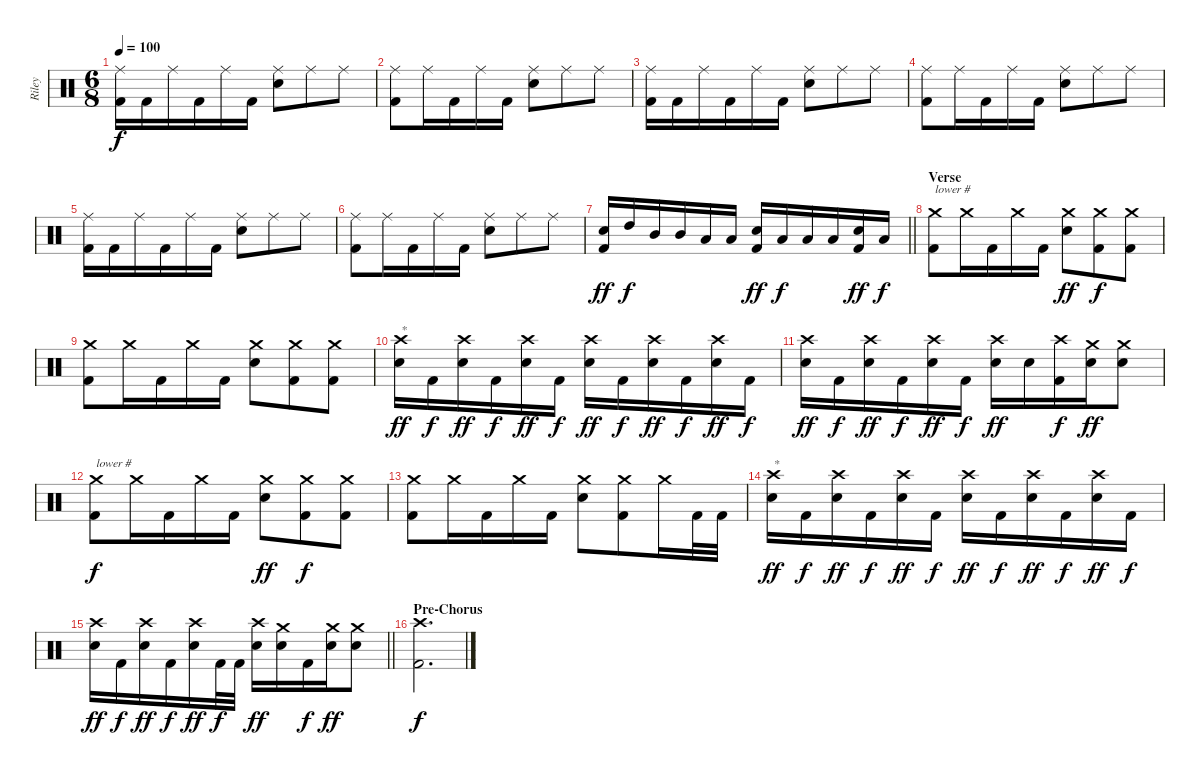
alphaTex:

\track ("Riley" "Riley") {instrument percussion}
\staff {score}
\articulation defaults
\ts (6 8)
\tempo 100
\clef neutral
\ks c
("Ride (middle)" "Kick (hit) 2").16{dy f} "Kick (hit) 2".16 "Ride (middle)".16 "Kick (hit) 2".16 "Ride (middle)".16 "Kick (hit) 2".16 ("Ride (middle)" "Electric Snare (hit)").8 "Ride (middle)".8 "Ride (middle)".8 |
("Ride (middle)" "Kick (hit) 2").8 "Ride (middle)".16 "Kick (hit) 2".16 "Ride (middle)".16 "Kick (hit) 2".16 ("Ride (middle)" "Electric Snare (hit)").8 "Ride (middle)".8 "Ride (middle)".8 |
("Ride (middle)" "Kick (hit) 2").16 "Kick (hit) 2".16 "Ride (middle)".16 "Kick (hit) 2".16 "Ride (middle)".16 "Kick (hit) 2".16 ("Ride (middle)" "Electric Snare (hit)").8 "Ride (middle)".8 "Ride (middle)".8 |
("Ride (middle)" "Kick (hit) 2").8 "Ride (middle)".16 "Kick (hit) 2".16 "Ride (middle)".16 "Kick (hit) 2".16 ("Ride (middle)" "Electric Snare (hit)").8 "Ride (middle)".8 "Ride (middle)".8 |
("Ride (middle)" "Kick (hit) 2").16 "Kick (hit) 2".16 "Ride (middle)".16 "Kick (hit) 2".16 "Ride (middle)".16 "Kick (hit) 2".16 ("Ride (middle)" "Electric Snare (hit)").8 "Ride (middle)".8 "Ride (middle)".8 |
("Ride (middle)" "Kick (hit) 2").8 "Ride (middle)".16 "Kick (hit) 2".16 "Ride (middle)".16 "Kick (hit) 2".16 ("Ride (middle)" "Electric Snare (hit)").8 "Ride (middle)".8 "Ride (middle)".8 |
\barLineRight lightlight
("Electric Snare (hit)" "Kick (hit) 2").16{dy ff} "High Tom (hit)".16{dy f} "Mid Tom (hit)".16 "Mid Tom (hit)".16 "Low Tom (hit)".16 "Low Tom (hit)".16 ("Electric Snare (hit)" "Kick (hit) 2").16{dy ff} "Low Tom (hit)".16{dy f} "Low Tom (hit)".16 "Low Tom (hit)".16 ("Electric Snare (hit)" "Kick (hit) 2").16{dy ff} "Low Tom (hit)".16{dy f} |
\section ("" "Verse")
("Crash medium (hit)" "Kick (hit) 2").8{txt "lower #"} "Crash medium (hit)".16 "Kick (hit) 2".16 "Crash medium (hit)".16 "Kick (hit) 2".16 ("Crash medium (hit)" "Electric Snare (hit)").8{dy ff} ("Crash medium (hit)" "Kick (hit) 2").8{dy f} ("Crash medium (hit)" "Kick (hit) 2").8 |
("Crash medium (hit)" "Kick (hit) 2").8 "Crash medium (hit)".16 "Kick (hit) 2".16 "Crash medium (hit)".16 "Kick (hit) 2".16 ("Crash medium (hit)" "Electric Snare (hit)").8 ("Crash medium (hit)" "Kick (hit) 2").8 ("Crash medium (hit)" "Kick (hit) 2").8 |
("Crash high (hit)" "Electric Snare (hit)").16{txt "*" dy ff} "Kick (hit) 2".16{dy f} ("Crash high (hit)" "Electric Snare (hit)").16{dy ff} "Kick (hit) 2".16{dy f} ("Crash high (hit)" "Electric Snare (hit)").16{dy ff} "Kick (hit) 2".16{dy f} ("Crash high (hit)" "Electric Snare (hit)").16{dy ff} "Kick (hit) 2".16{dy f} ("Crash high (hit)" "Electric Snare (hit)").16{dy ff} "Kick (hit) 2".16{dy f} ("Crash high (hit)" "Electric Snare (hit)").16{dy ff} "Kick (hit) 2".16{dy f} |
("Crash high (hit)" "Electric Snare (hit)").16{dy ff} "Kick (hit) 2".16{dy f} ("Crash high (hit)" "Electric Snare (hit)").16{dy ff} "Kick (hit) 2".16{dy f} ("Crash high (hit)" "Electric Snare (hit)").16{dy ff} "Kick (hit) 2".16{dy f} ("Crash high (hit)" "Electric Snare (hit)").16{dy ff} "Electric Snare (hit)".16 ("Crash high (hit)" "Kick (hit) 2").16{dy f} ("Crash medium (hit)" "Electric Snare (hit)").16{dy ff} ("Crash medium (hit)" "Electric Snare (hit)").8 |
("Crash medium (hit)" "Kick (hit) 2").8{txt "lower #" dy f} "Crash medium (hit)".16 "Kick (hit) 2".16 "Crash medium (hit)".16 "Kick (hit) 2".16 ("Crash medium (hit)" "Electric Snare (hit)").8{dy ff} ("Crash medium (hit)" "Kick (hit) 2").8{dy f} ("Crash medium (hit)" "Kick (hit) 2").8 |
("Crash medium (hit)" "Kick (hit) 2").8 "Crash medium (hit)".16 "Kick (hit) 2".16 "Crash medium (hit)".16 "Kick (hit) 2".16 ("Crash medium (hit)" "Electric Snare (hit)").8 ("Crash medium (hit)" "Kick (hit) 2").8 "Crash medium (hit)".16 "Kick (hit) 2".32 "Kick (hit) 2".32 |
("Crash high (hit)" "Electric Snare (hit)").16{txt "*" dy ff} "Kick (hit) 2".16{dy f} ("Crash high (hit)" "Electric Snare (hit)").16{dy ff} "Kick (hit) 2".16{dy f} ("Crash high (hit)" "Electric Snare (hit)").16{dy ff} "Kick (hit) 2".16{dy f} ("Crash high (hit)" "Electric Snare (hit)").16{dy ff} "Kick (hit) 2".16{dy f} ("Crash high (hit)" "Electric Snare (hit)").16{dy ff} "Kick (hit) 2".16{dy f} ("Crash high (hit)" "Electric Snare (hit)").16{dy ff} "Kick (hit) 2".16{dy f} |
\barLineRight lightlight
("Crash high (hit)" "Electric Snare (hit)").16{dy ff} "Kick (hit) 2".16{dy f} ("Crash high (hit)" "Electric Snare (hit)").16{dy ff} "Kick (hit) 2".16{dy f} ("Crash high (hit)" "Electric Snare (hit)").16{dy ff} "Kick (hit) 2".32{dy f} "Kick (hit) 2".32 ("Crash high (hit)" "Electric Snare (hit)").16{dy ff} ("Crash medium (hit)" "Electric Snare (hit)").16 "Kick (hit) 2".16{dy f} ("Crash medium (hit)" "Electric Snare (hit)").16{dy ff} ("Crash medium (hit)" "Electric Snare (hit)").8 |
\section ("" "Pre-Chorus")
("Crash high (hit)" "Kick (hit) 2").2{d dy f}
